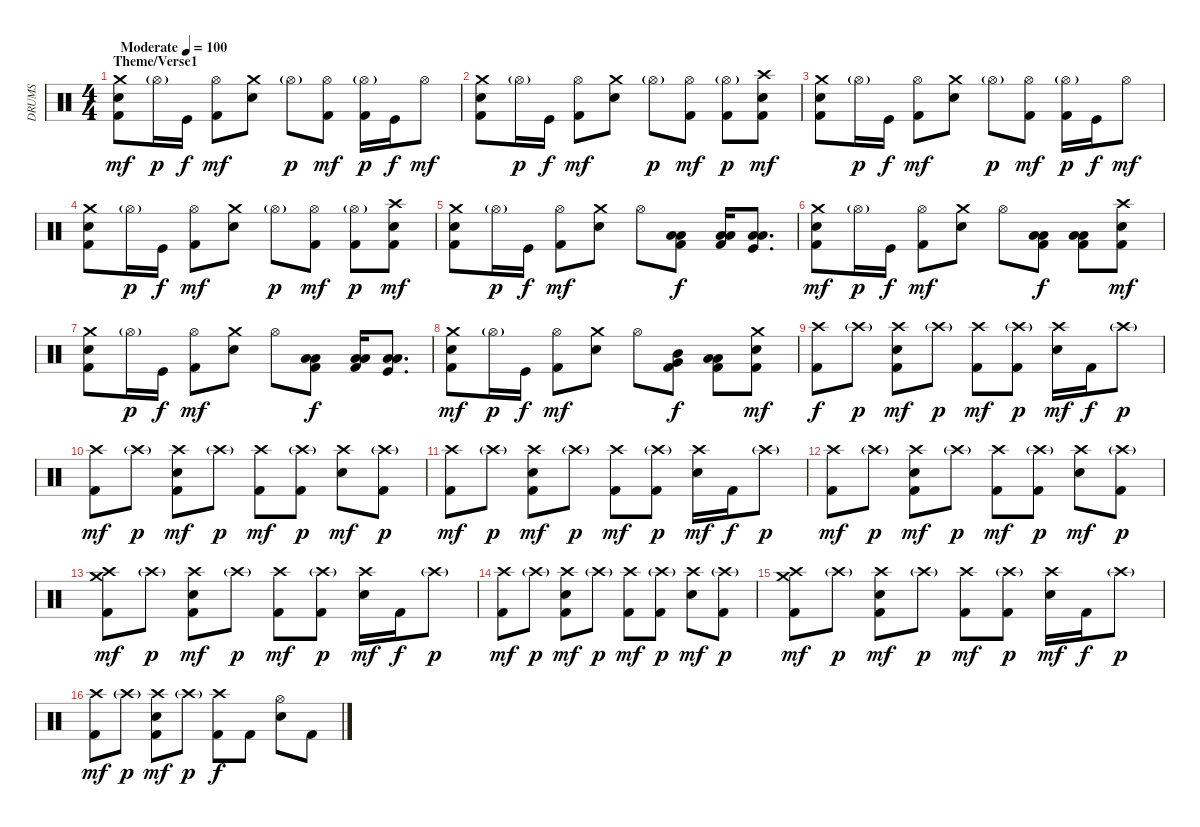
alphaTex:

\track ("DRUMS" "DRUMS") {instrument percussion}
\staff {score}
\articulation defaults
\ts (4 4)
\section ("" "Theme/Verse1")
\tempo (100 "Moderate")
\clef neutral
\ks c
("Crash medium (hit)" "Snare (hit) 2" "Kick (hit) 2").8{dy mf} "Hi-Hat (open)"{g}.16{dy p} "Kick (hit)".16{dy f} ("Hi-Hat (open)" "Kick (hit) 2").8{dy mf} ("Crash medium (hit)" "Snare (hit) 2").8 "Hi-Hat (open)"{g}.8{dy p} ("Hi-Hat (open)" "Kick (hit) 2").8{dy mf} ("Hi-Hat (open)"{g} "Kick (hit) 2").16{dy p} "Kick (hit)".16{dy f} "Hi-Hat (open)".8{dy mf} |
("Crash medium (hit)" "Snare (hit) 2" "Kick (hit) 2").8 "Hi-Hat (open)"{g}.16{dy p} "Kick (hit)".16{dy f} ("Hi-Hat (open)" "Kick (hit) 2").8{dy mf} ("Crash medium (hit)" "Snare (hit) 2").8 "Hi-Hat (open)"{g}.8{dy p} ("Hi-Hat (open)" "Kick (hit) 2").8{dy mf} ("Hi-Hat (open)"{g} "Kick (hit) 2").8{dy p} ("Crash high (hit)" "Snare (hit) 2" "Kick (hit) 2").8{dy mf} |
("Crash medium (hit)" "Snare (hit) 2" "Kick (hit) 2").8 "Hi-Hat (open)"{g}.16{dy p} "Kick (hit)".16{dy f} ("Hi-Hat (open)" "Kick (hit) 2").8{dy mf} ("Crash medium (hit)" "Snare (hit) 2").8 "Hi-Hat (open)"{g}.8{dy p} ("Hi-Hat (open)" "Kick (hit) 2").8{dy mf} ("Hi-Hat (open)"{g} "Kick (hit) 2").16{dy p} "Kick (hit)".16{dy f} "Hi-Hat (open)".8{dy mf} |
("Crash medium (hit)" "Snare (hit) 2" "Kick (hit) 2").8 "Hi-Hat (open)"{g}.16{dy p} "Kick (hit)".16{dy f} ("Hi-Hat (open)" "Kick (hit) 2").8{dy mf} ("Crash medium (hit)" "Snare (hit) 2").8 "Hi-Hat (open)"{g}.8{dy p} ("Hi-Hat (open)" "Kick (hit) 2").8{dy mf} ("Hi-Hat (open)"{g} "Kick (hit) 2").8{dy p} ("Crash high (hit)" "Snare (hit) 2" "Kick (hit) 2").8{dy mf} |
("Crash medium (hit)" "Snare (hit) 2" "Kick (hit) 2").8 "Hi-Hat (open)"{g}.16{dy p} "Kick (hit)".16{dy f} ("Hi-Hat (open)" "Kick (hit) 2").8{dy mf} ("Crash medium (hit)" "Snare (hit) 2").8 "Hi-Hat (open)".8 ("Low Tom (hit)" "Low Floor Tom (hit)" "Kick (hit) 2").8{dy f} ("Low Tom (hit)" "Low Floor Tom (hit)" "Kick (hit) 2").16 ("Low Tom (hit)" "Low Floor Tom (hit)" "Kick (hit)").8{d} |
("Crash medium (hit)" "Snare (hit) 2" "Kick (hit) 2").8{dy mf} "Hi-Hat (open)"{g}.16{dy p} "Kick (hit)".16{dy f} ("Hi-Hat (open)" "Kick (hit) 2").8{dy mf} ("Crash medium (hit)" "Snare (hit) 2").8 "Hi-Hat (open)".8 ("Low Tom (hit)" "Low Floor Tom (hit)" "Kick (hit) 2").8{dy f} ("Low Tom (hit)" "Low Floor Tom (hit)" "Kick (hit) 2").8 ("Crash high (hit)" "Snare (hit) 2" "Kick (hit) 2").8{dy mf} |
("Crash medium (hit)" "Snare (hit) 2" "Kick (hit) 2").8 "Hi-Hat (open)"{g}.16{dy p} "Kick (hit)".16{dy f} ("Hi-Hat (open)" "Kick (hit) 2").8{dy mf} ("Crash medium (hit)" "Snare (hit) 2").8 "Hi-Hat (open)".8 ("Low Tom (hit)" "Low Floor Tom (hit)" "Kick (hit) 2").8{dy f} ("Low Tom (hit)" "Low Floor Tom (hit)" "Kick (hit) 2").16 ("Low Tom (hit)" "Low Floor Tom (hit)" "Kick (hit)").8{d} |
("Crash medium (hit)" "Snare (hit) 2" "Kick (hit) 2").8{dy mf} "Hi-Hat (open)"{g}.16{dy p} "Kick (hit)".16{dy f} ("Hi-Hat (open)" "Kick (hit) 2").8{dy mf} ("Crash medium (hit)" "Snare (hit) 2").8 "Hi-Hat (open)".8 ("Mid Tom (hit)" "Very Low Tom (hit)" "Kick (hit) 2").8{dy f} ("Low Tom (hit)" "Low Floor Tom (hit)" "Kick (hit) 2").8 ("Crash medium (hit)" "Snare (hit) 2" "Kick (hit) 2").8{dy mf} |
("Crash high (hit)" "Kick (hit) 2").8{dy f} "Crash high (hit)"{g}.8{dy p} ("Crash high (hit)" "Snare (hit) 2" "Kick (hit) 2").8{dy mf} "Crash high (hit)"{g}.8{dy p} ("Crash high (hit)" "Kick (hit) 2").8{dy mf} ("Crash high (hit)"{g} "Kick (hit) 2").8{dy p} ("Crash high (hit)" "Snare (hit) 2").16{dy mf} "Kick (hit) 2".16{dy f} "Crash high (hit)"{g}.8{dy p} |
("Crash high (hit)" "Kick (hit) 2").8{dy mf} "Crash high (hit)"{g}.8{dy p} ("Crash high (hit)" "Snare (hit) 2" "Kick (hit) 2").8{dy mf} "Crash high (hit)"{g}.8{dy p} ("Crash high (hit)" "Kick (hit) 2").8{dy mf} ("Crash high (hit)"{g} "Kick (hit) 2").8{dy p} ("Crash high (hit)" "Snare (hit) 2").8{dy mf} ("Crash high (hit)"{g} "Kick (hit) 2").8{dy p} |
("Crash high (hit)" "Kick (hit) 2").8{dy mf} "Crash high (hit)"{g}.8{dy p} ("Crash high (hit)" "Snare (hit) 2" "Kick (hit) 2").8{dy mf} "Crash high (hit)"{g}.8{dy p} ("Crash high (hit)" "Kick (hit) 2").8{dy mf} ("Crash high (hit)"{g} "Kick (hit) 2").8{dy p} ("Crash high (hit)" "Snare (hit) 2").16{dy mf} "Kick (hit) 2".16{dy f} "Crash high (hit)"{g}.8{dy p} |
("Crash high (hit)" "Kick (hit) 2").8{dy mf} "Crash high (hit)"{g}.8{dy p} ("Crash high (hit)" "Snare (hit) 2" "Kick (hit) 2").8{dy mf} "Crash high (hit)"{g}.8{dy p} ("Crash high (hit)" "Kick (hit) 2").8{dy mf} ("Crash high (hit)"{g} "Kick (hit) 2").8{dy p} ("Crash high (hit)" "Snare (hit) 2").8{dy mf} ("Crash high (hit)"{g} "Kick (hit) 2").8{dy p} |
("Crash high (hit)" "Crash medium (hit)" "Kick (hit) 2").8{dy mf} "Crash high (hit)"{g}.8{dy p} ("Crash high (hit)" "Snare (hit) 2" "Kick (hit) 2").8{dy mf} "Crash high (hit)"{g}.8{dy p} ("Crash high (hit)" "Kick (hit) 2").8{dy mf} ("Crash high (hit)"{g} "Kick (hit) 2").8{dy p} ("Crash high (hit)" "Snare (hit) 2").16{dy mf} "Kick (hit) 2".16{dy f} "Crash high (hit)"{g}.8{dy p} |
("Crash high (hit)" "Kick (hit) 2").8{dy mf} "Crash high (hit)"{g}.8{dy p} ("Crash high (hit)" "Snare (hit) 2" "Kick (hit) 2").8{dy mf} "Crash high (hit)"{g}.8{dy p} ("Crash high (hit)" "Kick (hit) 2").8{dy mf} ("Crash high (hit)"{g} "Kick (hit) 2").8{dy p} ("Crash high (hit)" "Snare (hit) 2").8{dy mf} ("Crash high (hit)"{g} "Kick (hit) 2").8{dy p} |
("Crash high (hit)" "Crash medium (hit)" "Kick (hit) 2").8{dy mf} "Crash high (hit)"{g}.8{dy p} ("Crash high (hit)" "Snare (hit) 2" "Kick (hit) 2").8{dy mf} "Crash high (hit)"{g}.8{dy p} ("Crash high (hit)" "Kick (hit) 2").8{dy mf} ("Crash high (hit)"{g} "Kick (hit) 2").8{dy p} ("Crash high (hit)" "Snare (hit) 2").16{dy mf} "Kick (hit) 2".16{dy f} "Crash high (hit)"{g}.8{dy p} |
("Crash high (hit)" "Kick (hit) 2").8{dy mf} "Crash high (hit)"{g}.8{dy p} ("Crash high (hit)" "Snare (hit) 2" "Kick (hit) 2").8{dy mf} "Crash high (hit)"{g}.8{dy p} ("Crash high (hit)" "Kick (hit) 2").8{dy f} "Kick (hit) 2".8 ("Hi-Hat (open)" "Snare (hit) 2").8 "Kick (hit) 2".8
